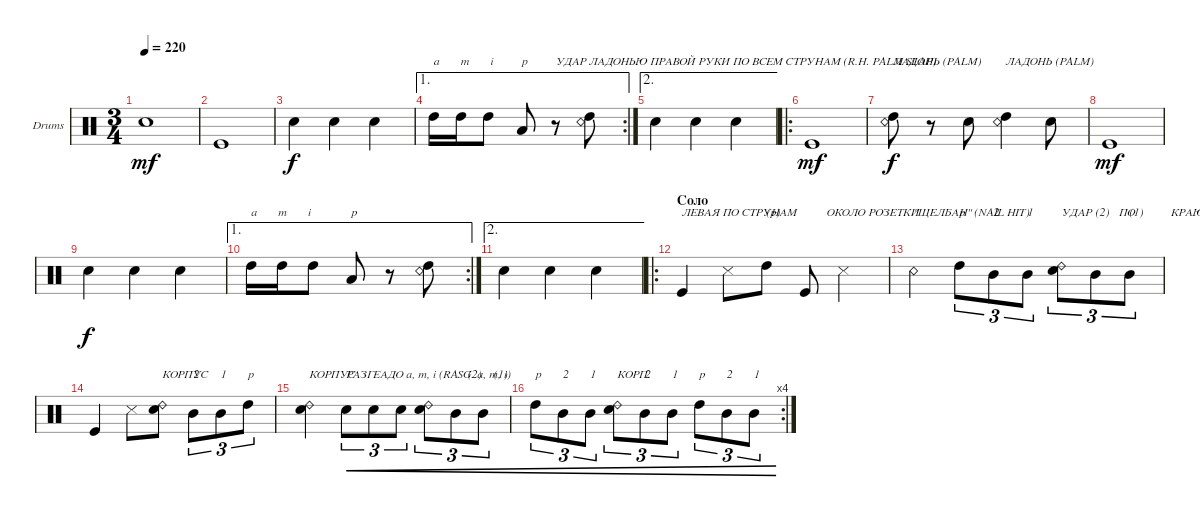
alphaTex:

\defaultSystemsLayout 4
\bracketExtendMode groupsimilarinstruments
\firstSystemTrackNameOrientation horizontal
\otherSystemsTrackNameOrientation horizontal
\track ("Drumkit" "Drums") {instrument percussion}
\staff {score}
\articulation defaults
\ts (3 4)
\tempo 220
\clef neutral
\ks c "Snare (hit) 2".1{dy mf}
|
"Kick (hit)".1 |
"Snare (hit) 2".4{dy f} "Snare (hit) 2".4 "Snare (hit) 2".4 |
\ae 1
\rc 2 "High Tom (hit)".16{txt "a       m       i"} "High Tom (hit)".16 "High Tom (hit)".8 "Low Tom (hit)".8{txt "p"}
r.8{txt "УДАР ЛАДОНЬЮ ПРАВОЙ РУКИ ПО ВСЕМ СТРУНАМ (R.H. PALM SLAP)"} ("Snare (rim shot)" "High Tom (hit)").8 |
\ae 2 "Snare (hit) 2".4 "Snare (hit) 2".4 "Snare (hit) 2".4
|
\ro "Kick (hit)".1{dy mf}
|
("High Tom (hit)" "Snare (rim shot)").8{txt "ЛАДОНЬ (PALM)" dy f} r.8 "Snare (hit) 2".8 ("High Tom (hit)" "Snare (rim shot)").4{txt "ЛАДОНЬ (PALM)"} "Snare (hit) 2".8 |
"Kick (hit)".1{dy mf} |
"Snare (hit) 2".4{dy f} "Snare (hit) 2".4 "Snare (hit) 2".4 |
\ae 1
\rc 2 "High Tom (hit)".16{txt "a       m       i"} "High Tom (hit)".16 "High Tom (hit)".8 "Low Tom (hit)".8{txt "p"}
r.8 ("High Tom (hit)" "Snare (rim shot)").8 |
\ae 2 "Snare (hit) 2".4 "Snare (hit) 2".4 "Snare (hit) 2".4
|
\ro
\section ("" "Соло")
"Kick (hit)".4{txt "ЛЕВАЯ ПО СТРУНАМ          ОКОЛО РОЗЕТКИ"} "Snare (side stick) 3".8 "High Tom (hit)".8{txt "(p)"} "Kick (hit)".8 "Snare (side stick) 3".4 |
"Snare (rim shot)".4{txt "\"ЩЕЛБАН\" (NAIL HIT)"} "High Tom (hit)".8{tu (3 2) txt "p"} "Mid Tom (hit)".8{tu (3 2) txt "2"} "Mid Tom (hit)".8{tu (3 2) txt "1"} ("Snare (hit) 2" "Ride (bell) 2").8{tu (3 2) txt "УДАР         ПО            КРАЮ КОРПУСА "} "Mid Tom (hit)".8{tu (3 2) txt "(2)"} "Mid Tom (hit)".8{tu (3 2) txt "(1)"} |
"Kick (hit)".4 "Snare (side stick) 3".8 ("Snare (hit) 2" "Ride (bell) 2").8{txt "КОРПУС"} "Mid Tom (hit)".8{tu (3 2) txt "2"} "Mid Tom (hit)".8{tu (3 2) txt "1"} "High Tom (hit)".8{tu (3 2) txt "p"} |
("Snare (hit) 2" "Ride (bell) 2").4{txt "КОРПУС"} "Snare (hit) 2".8{tu (3 2) txt "РАЗГЕАДО a, m, i (RASG. a, m, i)" cre} "Snare (hit) 2".8{tu (3 2) cre} "Snare (hit) 2".8{tu (3 2) cre} ("Snare (hit) 2" "Ride (bell) 2").8{tu (3 2) cre} "Mid Tom (hit)".8{tu (3 2) txt "    (2)    (1)" cre} "Mid Tom (hit)".8{tu (3 2) cre} |
\rc 4 "High Tom (hit)".8{tu (3 2) txt "p" cre} "Mid Tom (hit)".8{tu (3 2) txt "2" cre} "Mid Tom (hit)".8{tu (3 2) txt "1" cre}
("Snare (hit) 2" "Ride (bell) 2").8{tu (3 2) txt "КОРП." cre} "Mid Tom (hit)".8{tu (3 2) txt "2" cre} "Mid Tom (hit)".8{tu (3 2) txt "1" cre} "High Tom (hit)".8{tu (3 2) txt "p" cre} "Mid Tom (hit)".8{tu (3 2) txt "2" cre} "Mid Tom (hit)".8{tu (3 2) txt "1" cre}
